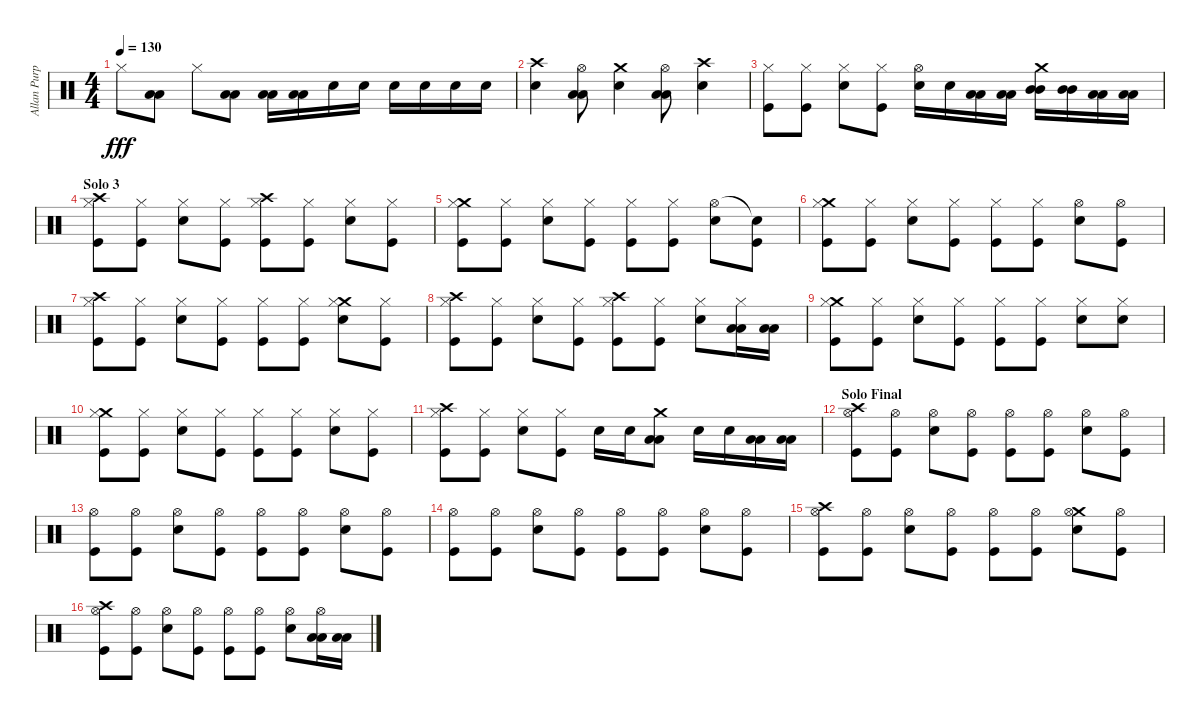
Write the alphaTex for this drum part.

\track ("Allan Purple" "Allan Purp") {instrument percussion}
\staff {score}
\articulation defaults
\ts (4 4)
\tempo 130
\clef neutral
\ks c "Hi-Hat (closed)".8{dy fff}
("Low Tom (hit)" "Low Tom (hit)").8 "Hi-Hat (closed)".8 ("Low Tom (hit)" "Low Tom (hit)").8 ("Low Tom (hit)" "Low Tom (hit)").16 ("Low Tom (hit)" "Low Tom (hit)").16 "Snare (hit) 2".16 "Snare (hit) 2".16 "Electric Snare (hit)".16 "Electric Snare (hit)".16 "Snare (hit) 2".16 "Snare (hit) 2".16 |
("Crash high (hit)" "Electric Snare (hit)").4 ("Hi-Hat (open)" "Low Tom (hit)" "Low Tom (hit)").8 ("Crash medium (hit)" "Snare (hit) 2").4 ("Hi-Hat (open)" "Low Tom (hit)" "Low Tom (hit)").8 ("Crash high (hit)" "Electric Snare (hit)").4 |
("Hi-Hat (closed)" "Kick (hit)").8 ("Hi-Hat (closed)" "Kick (hit)").8 ("Hi-Hat (closed)" "Electric Snare (hit)").8 ("Hi-Hat (closed)" "Kick (hit)").8 ("Hi-Hat (open)" "Electric Snare (hit)").16 "Electric Snare (hit)".16 ("Low Tom (hit)" "Low Tom (hit)").16 ("Low Tom (hit)" "Low Tom (hit)").16 ("Crash medium (hit)" "Mid Tom (hit)" "Mid Tom (hit)").16 ("Mid Tom (hit)" "Mid Tom (hit)").16 ("Low Tom (hit)" "Low Tom (hit)").16 ("Low Tom (hit)" "Low Tom (hit)").16 |
\section ("" "Solo 3")
("Crash high (hit)" "Hi-Hat (closed)" "Kick (hit)").8 ("Hi-Hat (closed)" "Kick (hit)").8 ("Hi-Hat (closed)" "Electric Snare (hit)").8 ("Hi-Hat (closed)" "Kick (hit)").8 ("Crash high (hit)" "Hi-Hat (closed)" "Kick (hit)").8 ("Hi-Hat (closed)" "Kick (hit)").8 ("Hi-Hat (closed)" "Electric Snare (hit)").8 ("Hi-Hat (closed)" "Kick (hit)").8 |
("Crash medium (hit)" "Hi-Hat (closed)" "Kick (hit)").8 ("Hi-Hat (closed)" "Kick (hit)").8 ("Hi-Hat (closed)" "Electric Snare (hit)").8 ("Hi-Hat (closed)" "Kick (hit)").8 ("Hi-Hat (closed)" "Kick (hit)").8 ("Hi-Hat (closed)" "Kick (hit)").8 ("Hi-Hat (open)" "Electric Snare (hit)").8 ("Snare (hit)"{t} "Kick (hit)").8 |
("Crash medium (hit)" "Hi-Hat (closed)" "Kick (hit)").8 ("Hi-Hat (closed)" "Kick (hit)").8 ("Hi-Hat (closed)" "Electric Snare (hit)").8 ("Hi-Hat (closed)" "Kick (hit)").8 ("Hi-Hat (closed)" "Kick (hit)").8 ("Hi-Hat (closed)" "Kick (hit)").8 ("Hi-Hat (open)" "Electric Snare (hit)").8 ("Hi-Hat (open)" "Kick (hit)").8 |
("Crash high (hit)" "Hi-Hat (closed)" "Kick (hit)").8 ("Hi-Hat (closed)" "Kick (hit)").8 ("Hi-Hat (closed)" "Electric Snare (hit)").8 ("Hi-Hat (closed)" "Kick (hit)").8 ("Hi-Hat (closed)" "Kick (hit)").8 ("Hi-Hat (closed)" "Kick (hit)").8 ("Crash medium (hit)" "Hi-Hat (closed)" "Electric Snare (hit)").8 ("Hi-Hat (closed)" "Kick (hit)").8 |
("Crash high (hit)" "Hi-Hat (closed)" "Kick (hit)").8 ("Hi-Hat (closed)" "Kick (hit)").8 ("Hi-Hat (closed)" "Electric Snare (hit)").8 ("Hi-Hat (closed)" "Kick (hit)").8 ("Crash high (hit)" "Hi-Hat (closed)" "Kick (hit)").8 ("Hi-Hat (closed)" "Kick (hit)").8 ("Hi-Hat (closed)" "Electric Snare (hit)").8 ("Hi-Hat (closed)" "Low Tom (hit)" "Low Tom (hit)").16 ("Low Tom (hit)" "Low Tom (hit)").16 |
("Crash medium (hit)" "Hi-Hat (closed)" "Kick (hit)").8 ("Hi-Hat (closed)" "Kick (hit)").8 ("Hi-Hat (closed)" "Electric Snare (hit)").8 ("Hi-Hat (closed)" "Kick (hit)").8 ("Hi-Hat (closed)" "Kick (hit)").8 ("Hi-Hat (closed)" "Kick (hit)").8 ("Hi-Hat (closed)" "Electric Snare (hit)").8 ("Hi-Hat (closed)" "Electric Snare (hit)").8 |
("Crash medium (hit)" "Hi-Hat (closed)" "Kick (hit)").8 ("Hi-Hat (closed)" "Kick (hit)").8 ("Hi-Hat (closed)" "Electric Snare (hit)").8 ("Hi-Hat (closed)" "Kick (hit)").8 ("Hi-Hat (closed)" "Kick (hit)").8 ("Hi-Hat (closed)" "Kick (hit)").8 ("Hi-Hat (closed)" "Electric Snare (hit)").8 ("Hi-Hat (closed)" "Kick (hit)").8 |
("Crash high (hit)" "Hi-Hat (closed)" "Kick (hit)").8 ("Hi-Hat (closed)" "Kick (hit)").8 ("Hi-Hat (closed)" "Electric Snare (hit)").8 ("Hi-Hat (closed)" "Kick (hit)").8 "Electric Snare (hit)".16 "Electric Snare (hit)".16 ("Crash medium (hit)" "Low Tom (hit)" "Low Tom (hit)").8 "Snare (hit) 2".16 "Snare (hit) 2".16 ("Low Tom (hit)" "Low Tom (hit)").16 ("Low Tom (hit)" "Low Tom (hit)").16 |
\section ("" "Solo Final")
("Crash high (hit)" "Hi-Hat (open)" "Kick (hit)").8 ("Hi-Hat (open)" "Kick (hit)").8 ("Hi-Hat (open)" "Electric Snare (hit)").8 ("Hi-Hat (open)" "Kick (hit)").8 ("Hi-Hat (open)" "Kick (hit)").8 ("Hi-Hat (open)" "Kick (hit)").8 ("Hi-Hat (open)" "Electric Snare (hit)").8 ("Hi-Hat (open)" "Kick (hit)").8 |
("Hi-Hat (open)" "Kick (hit)").8 ("Hi-Hat (open)" "Kick (hit)").8 ("Hi-Hat (open)" "Electric Snare (hit)").8 ("Hi-Hat (open)" "Kick (hit)").8 ("Hi-Hat (open)" "Kick (hit)").8 ("Hi-Hat (open)" "Kick (hit)").8 ("Hi-Hat (open)" "Electric Snare (hit)").8 ("Hi-Hat (open)" "Kick (hit)").8 |
("Hi-Hat (open)" "Kick (hit)").8 ("Hi-Hat (open)" "Kick (hit)").8 ("Hi-Hat (open)" "Electric Snare (hit)").8 ("Hi-Hat (open)" "Kick (hit)").8 ("Hi-Hat (open)" "Kick (hit)").8 ("Hi-Hat (open)" "Kick (hit)").8 ("Hi-Hat (open)" "Electric Snare (hit)").8 ("Hi-Hat (open)" "Kick (hit)").8 |
("Crash high (hit)" "Hi-Hat (open)" "Kick (hit)").8 ("Hi-Hat (open)" "Kick (hit)").8 ("Hi-Hat (open)" "Electric Snare (hit)").8 ("Hi-Hat (open)" "Kick (hit)").8 ("Hi-Hat (open)" "Kick (hit)").8 ("Hi-Hat (open)" "Kick (hit)").8 ("Crash medium (hit)" "Hi-Hat (open)" "Electric Snare (hit)").8 ("Hi-Hat (open)" "Kick (hit)").8 |
("Crash high (hit)" "Hi-Hat (open)" "Kick (hit)").8 ("Hi-Hat (open)" "Kick (hit)").8 ("Hi-Hat (open)" "Electric Snare (hit)").8 ("Hi-Hat (open)" "Kick (hit)").8 ("Hi-Hat (open)" "Kick (hit)").8 ("Hi-Hat (open)" "Kick (hit)").8 ("Hi-Hat (open)" "Electric Snare (hit)").8 ("Hi-Hat (open)" "Low Tom (hit)" "Low Tom (hit)").16 ("Low Tom (hit)" "Low Tom (hit)").16
